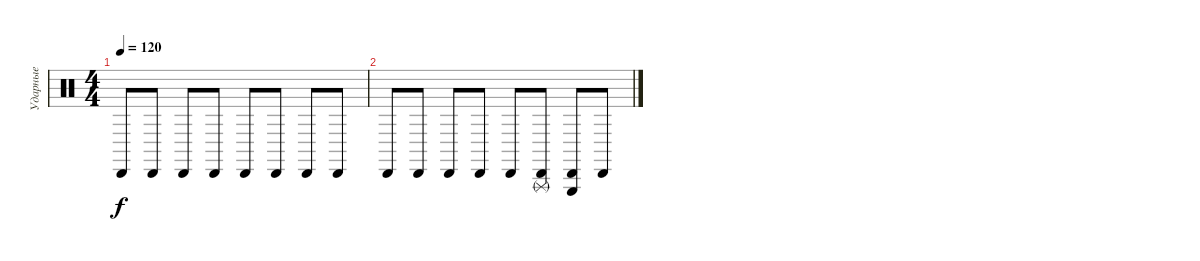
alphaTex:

\track ("Ударные" "Ударные") {instrument percussion}
\staff {score}
\articulation defaults
\ts (4 4)
\tempo 120
\clef neutral
\ks c "Cabasa (hit)".8{dy f} "Cabasa (hit)".8 "Cabasa (hit)".8 "Cabasa (hit)".8 "Cabasa (hit)".8 "Cabasa (hit)".8 "Cabasa (hit)".8 "Cabasa (hit)".8
|
"Cabasa (hit)".8 "Cabasa (hit)".8 "Cabasa (hit)".8 "Cabasa (hit)".8 "Cabasa (hit)".8 ("Cabasa (hit)" "Triangle (rnute)").8 ("Cabasa (hit)" "Triangle (hit)").8 "Cabasa (hit)".8
